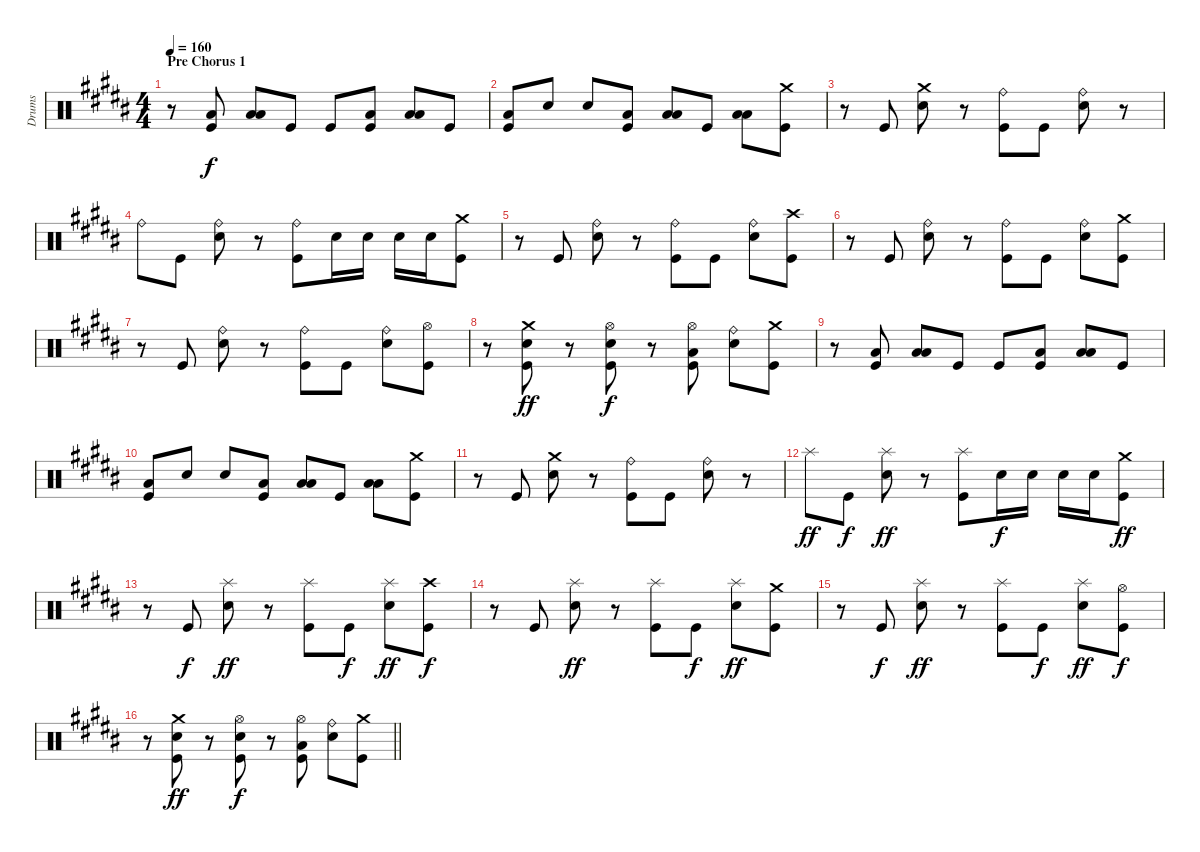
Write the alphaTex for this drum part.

\track ("Drums" "Drums") {instrument percussion}
\staff {score}
\articulation defaults
\ts (4 4)
\section ("" "Pre Chorus 1")
\tempo 160
\clef neutral
\ks b
r.8{dy f} ("Low Floor Tom (hit)" "Kick (hit)").8 ("Low Tom (hit)" "Low Floor Tom (hit)").8 "Kick (hit)".8 "Kick (hit)".8 ("Low Floor Tom (hit)" "Kick (hit)").8 ("Low Tom (hit)" "Low Floor Tom (hit)").8 "Kick (hit)".8 |
("Low Tom (hit)" "Kick (hit)").8 "Snare (hit) 2".8 "Snare (hit) 2".8 ("Low Tom (hit)" "Kick (hit)").8 ("Low Tom (hit)" "Low Floor Tom (hit)").8 "Kick (hit)".8 ("Low Tom (hit)" "Low Floor Tom (hit)").8 ("Crash medium (hit)" "Kick (hit)").8 |
r.8 "Kick (hit)".8 ("Crash medium (hit)" "Snare (hit) 2").8 r.8 ("Ride (bell)" "Kick (hit)").8 "Kick (hit)".8 ("Ride (bell)" "Snare (hit) 2").8 r.8 |
"Ride (bell)".8 "Kick (hit)".8 ("Ride (bell)" "Snare (hit) 2").8 r.8 ("Ride (bell)" "Kick (hit)").8 "Snare (hit) 2".16 "Snare (hit) 2".16 "Snare (hit) 2".16 "Snare (hit) 2".16 ("Crash medium (hit)" "Kick (hit)").8 |
r.8 "Kick (hit)".8 ("Ride (bell)" "Snare (hit) 2").8 r.8 ("Ride (bell)" "Kick (hit)").8 "Kick (hit)".8 ("Ride (bell)" "Snare (hit) 2").8 ("Crash high (hit)" "Kick (hit)").8 |
r.8 "Kick (hit)".8 ("Ride (bell)" "Snare (hit) 2").8 r.8 ("Ride (bell)" "Kick (hit)").8 "Kick (hit)".8 ("Ride (bell)" "Snare (hit) 2").8 ("Crash medium (hit)" "Kick (hit)").8 |
r.8 "Kick (hit)".8 ("Ride (bell)" "Snare (hit) 2").8 r.8 ("Ride (bell)" "Kick (hit)").8 "Kick (hit)".8 ("Ride (bell)" "Snare (hit) 2").8 ("Hi-Hat (open)" "Kick (hit)").8 |
r.8 ("Crash medium (hit)" "Snare (hit) 2" "Kick (hit)").8{dy ff} r.8 ("Hi-Hat (open)" "Snare (hit) 2" "Kick (hit)").8{dy f} r.8 ("Hi-Hat (open)" "Low Tom (hit)" "Kick (hit)").8 ("Ride (bell)" "Snare (hit) 2").8 ("Crash medium (hit)" "Kick (hit)").8 |
r.8 ("Low Floor Tom (hit)" "Kick (hit)").8 ("Low Tom (hit)" "Low Floor Tom (hit)").8 "Kick (hit)".8 "Kick (hit)".8 ("Low Floor Tom (hit)" "Kick (hit)").8 ("Low Tom (hit)" "Low Floor Tom (hit)").8 "Kick (hit)".8 |
("Low Tom (hit)" "Kick (hit)").8 "Snare (hit) 2".8 "Snare (hit) 2".8 ("Low Tom (hit)" "Kick (hit)").8 ("Low Tom (hit)" "Low Floor Tom (hit)").8 "Kick (hit)".8 ("Low Tom (hit)" "Low Floor Tom (hit)").8 ("Crash medium (hit)" "Kick (hit)").8 |
r.8 "Kick (hit)".8 ("Crash medium (hit)" "Snare (hit) 2").8 r.8 ("Ride (bell)" "Kick (hit)").8 "Kick (hit)".8 ("Ride (bell)" "Snare (hit) 2").8 r.8 |
"Splash (hit)".8{dy ff} "Kick (hit)".8{dy f} ("Splash (hit)" "Snare (hit) 2").8{dy ff} r.8 ("Splash (hit)" "Kick (hit)").8 "Snare (hit) 2".16{dy f} "Snare (hit) 2".16 "Snare (hit) 2".16 "Snare (hit) 2".16 ("Crash medium (hit)" "Kick (hit)").8{dy ff} |
r.8 "Kick (hit)".8{dy f} ("Splash (hit)" "Snare (hit) 2").8{dy ff} r.8 ("Splash (hit)" "Kick (hit)").8 "Kick (hit)".8{dy f} ("Splash (hit)" "Snare (hit) 2").8{dy ff} ("Crash high (hit)" "Kick (hit)").8{dy f} |
r.8 "Kick (hit)".8 ("Splash (hit)" "Snare (hit) 2").8{dy ff} r.8 ("Splash (hit)" "Kick (hit)").8 "Kick (hit)".8{dy f} ("Splash (hit)" "Snare (hit) 2").8{dy ff} ("Crash medium (hit)" "Kick (hit)").8 |
r.8 "Kick (hit)".8{dy f} ("Splash (hit)" "Snare (hit) 2").8{dy ff} r.8 ("Splash (hit)" "Kick (hit)").8 "Kick (hit)".8{dy f} ("Splash (hit)" "Snare (hit) 2").8{dy ff} ("Hi-Hat (open)" "Kick (hit)").8{dy f} |
\barLineRight lightlight
r.8 ("Crash medium (hit)" "Snare (hit) 2" "Kick (hit)").8{dy ff} r.8 ("Hi-Hat (open)" "Snare (hit) 2" "Kick (hit)").8{dy f} r.8 ("Hi-Hat (open)" "Low Tom (hit)" "Kick (hit)").8 ("Ride (bell)" "Snare (hit) 2").8 ("Crash medium (hit)" "Kick (hit)").8
